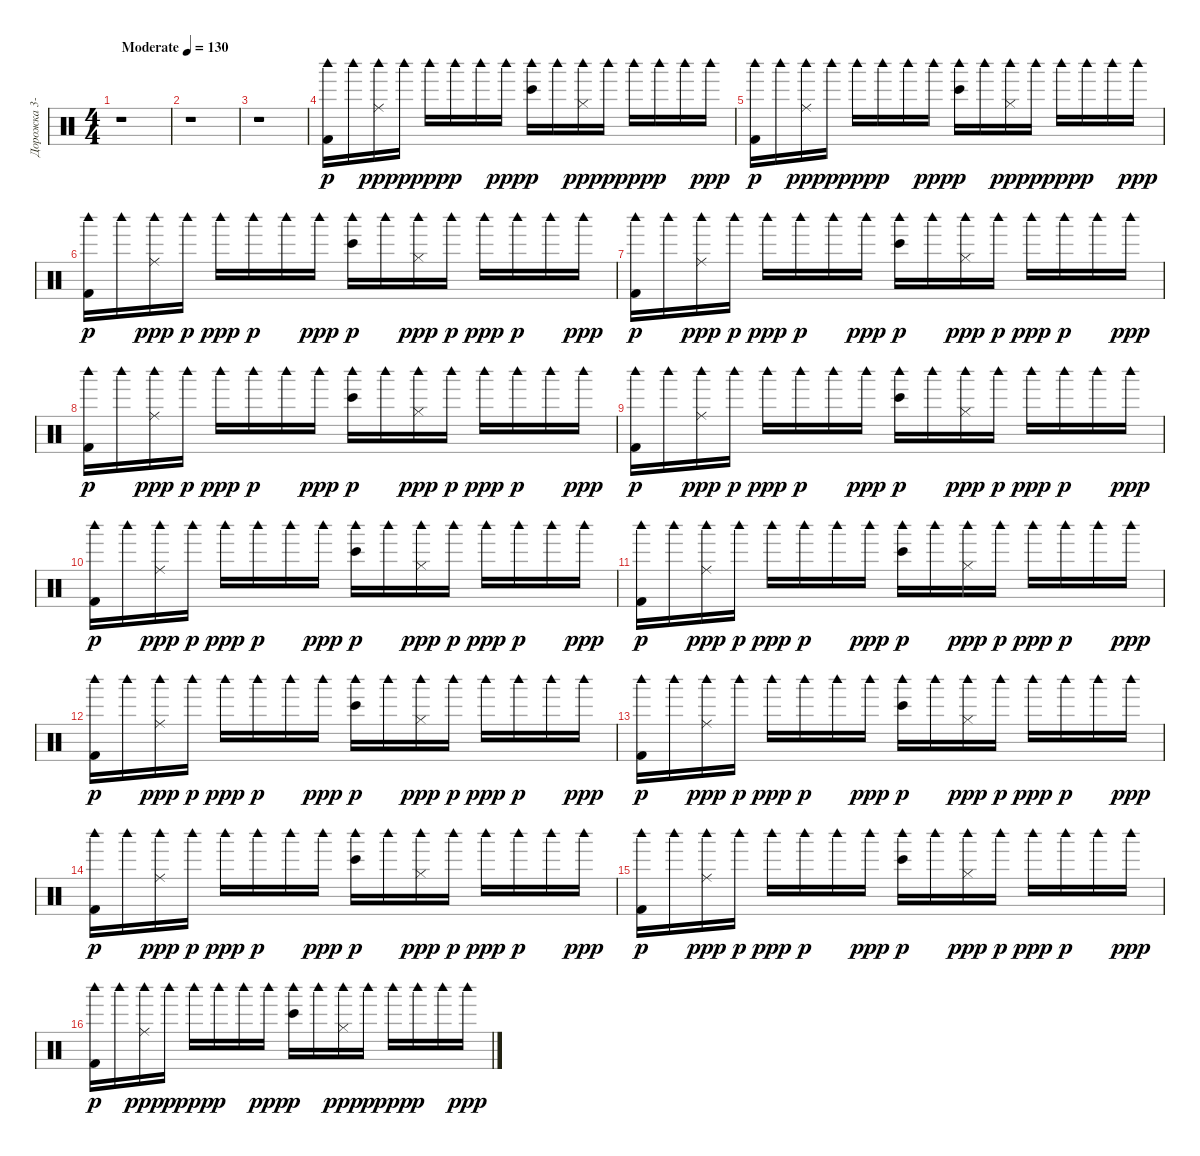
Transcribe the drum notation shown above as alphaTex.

\track ("Дорожка 3-4-5" "Дорожка 3-") {instrument percussion}
\staff {score}
\articulation defaults
\ts (4 4)
\tempo (130 "Moderate")
\clef neutral
\ks c
r.1{dy p} |
r.1 |
r.1 |
("Kick (hit) 2" "Woodblock high (hit)").16 "Woodblock high (hit)".16 ("Ride (middle)" "Woodblock high (hit)").16{dy ppp} "Woodblock high (hit)".16{dy p} "Woodblock high (hit)".16{dy ppp} "Woodblock high (hit)".16{dy p} "Woodblock high (hit)".16 "Woodblock high (hit)".16{dy ppp} ("Bongo High (hit)" "Woodblock high (hit)").16{dy p} "Woodblock high (hit)".16 ("Hi-Hat (closed)" "Woodblock high (hit)").16{dy ppp} "Woodblock high (hit)".16{dy p} "Woodblock high (hit)".16{dy ppp} "Woodblock high (hit)".16{dy p} "Woodblock high (hit)".16 "Woodblock high (hit)".16{dy ppp} |
("Kick (hit) 2" "Woodblock high (hit)").16{dy p} "Woodblock high (hit)".16 ("Ride (middle)" "Woodblock high (hit)").16{dy ppp} "Woodblock high (hit)".16{dy p} "Woodblock high (hit)".16{dy ppp} "Woodblock high (hit)".16{dy p} "Woodblock high (hit)".16 "Woodblock high (hit)".16{dy ppp} ("Bongo High (hit)" "Woodblock high (hit)").16{dy p} "Woodblock high (hit)".16 ("Hi-Hat (closed)" "Woodblock high (hit)").16{dy ppp} "Woodblock high (hit)".16{dy p} "Woodblock high (hit)".16{dy ppp} "Woodblock high (hit)".16{dy p} "Woodblock high (hit)".16 "Woodblock high (hit)".16{dy ppp} |
("Kick (hit) 2" "Woodblock high (hit)").16{dy p} "Woodblock high (hit)".16 ("Ride (middle)" "Woodblock high (hit)").16{dy ppp} "Woodblock high (hit)".16{dy p} "Woodblock high (hit)".16{dy ppp} "Woodblock high (hit)".16{dy p} "Woodblock high (hit)".16 "Woodblock high (hit)".16{dy ppp} ("Bongo High (hit)" "Woodblock high (hit)").16{dy p} "Woodblock high (hit)".16 ("Hi-Hat (closed)" "Woodblock high (hit)").16{dy ppp} "Woodblock high (hit)".16{dy p} "Woodblock high (hit)".16{dy ppp} "Woodblock high (hit)".16{dy p} "Woodblock high (hit)".16 "Woodblock high (hit)".16{dy ppp} |
("Kick (hit) 2" "Woodblock high (hit)").16{dy p} "Woodblock high (hit)".16 ("Ride (middle)" "Woodblock high (hit)").16{dy ppp} "Woodblock high (hit)".16{dy p} "Woodblock high (hit)".16{dy ppp} "Woodblock high (hit)".16{dy p} "Woodblock high (hit)".16 "Woodblock high (hit)".16{dy ppp} ("Bongo High (hit)" "Woodblock high (hit)").16{dy p} "Woodblock high (hit)".16 ("Hi-Hat (closed)" "Woodblock high (hit)").16{dy ppp} "Woodblock high (hit)".16{dy p} "Woodblock high (hit)".16{dy ppp} "Woodblock high (hit)".16{dy p} "Woodblock high (hit)".16 "Woodblock high (hit)".16{dy ppp} |
("Kick (hit) 2" "Woodblock high (hit)").16{dy p} "Woodblock high (hit)".16 ("Ride (middle)" "Woodblock high (hit)").16{dy ppp} "Woodblock high (hit)".16{dy p} "Woodblock high (hit)".16{dy ppp} "Woodblock high (hit)".16{dy p} "Woodblock high (hit)".16 "Woodblock high (hit)".16{dy ppp} ("Bongo High (hit)" "Woodblock high (hit)").16{dy p} "Woodblock high (hit)".16 ("Hi-Hat (closed)" "Woodblock high (hit)").16{dy ppp} "Woodblock high (hit)".16{dy p} "Woodblock high (hit)".16{dy ppp} "Woodblock high (hit)".16{dy p} "Woodblock high (hit)".16 "Woodblock high (hit)".16{dy ppp} |
("Kick (hit) 2" "Woodblock high (hit)").16{dy p} "Woodblock high (hit)".16 ("Ride (middle)" "Woodblock high (hit)").16{dy ppp} "Woodblock high (hit)".16{dy p} "Woodblock high (hit)".16{dy ppp} "Woodblock high (hit)".16{dy p} "Woodblock high (hit)".16 "Woodblock high (hit)".16{dy ppp} ("Bongo High (hit)" "Woodblock high (hit)").16{dy p} "Woodblock high (hit)".16 ("Hi-Hat (closed)" "Woodblock high (hit)").16{dy ppp} "Woodblock high (hit)".16{dy p} "Woodblock high (hit)".16{dy ppp} "Woodblock high (hit)".16{dy p} "Woodblock high (hit)".16 "Woodblock high (hit)".16{dy ppp} |
("Kick (hit) 2" "Woodblock high (hit)").16{dy p} "Woodblock high (hit)".16 ("Ride (middle)" "Woodblock high (hit)").16{dy ppp} "Woodblock high (hit)".16{dy p} "Woodblock high (hit)".16{dy ppp} "Woodblock high (hit)".16{dy p} "Woodblock high (hit)".16 "Woodblock high (hit)".16{dy ppp} ("Bongo High (hit)" "Woodblock high (hit)").16{dy p} "Woodblock high (hit)".16 ("Hi-Hat (closed)" "Woodblock high (hit)").16{dy ppp} "Woodblock high (hit)".16{dy p} "Woodblock high (hit)".16{dy ppp} "Woodblock high (hit)".16{dy p} "Woodblock high (hit)".16 "Woodblock high (hit)".16{dy ppp} |
("Kick (hit) 2" "Woodblock high (hit)").16{dy p} "Woodblock high (hit)".16 ("Ride (middle)" "Woodblock high (hit)").16{dy ppp} "Woodblock high (hit)".16{dy p} "Woodblock high (hit)".16{dy ppp} "Woodblock high (hit)".16{dy p} "Woodblock high (hit)".16 "Woodblock high (hit)".16{dy ppp} ("Bongo High (hit)" "Woodblock high (hit)").16{dy p} "Woodblock high (hit)".16 ("Hi-Hat (closed)" "Woodblock high (hit)").16{dy ppp} "Woodblock high (hit)".16{dy p} "Woodblock high (hit)".16{dy ppp} "Woodblock high (hit)".16{dy p} "Woodblock high (hit)".16 "Woodblock high (hit)".16{dy ppp} |
("Kick (hit) 2" "Woodblock high (hit)").16{dy p} "Woodblock high (hit)".16 ("Ride (middle)" "Woodblock high (hit)").16{dy ppp} "Woodblock high (hit)".16{dy p} "Woodblock high (hit)".16{dy ppp} "Woodblock high (hit)".16{dy p} "Woodblock high (hit)".16 "Woodblock high (hit)".16{dy ppp} ("Bongo High (hit)" "Woodblock high (hit)").16{dy p} "Woodblock high (hit)".16 ("Hi-Hat (closed)" "Woodblock high (hit)").16{dy ppp} "Woodblock high (hit)".16{dy p} "Woodblock high (hit)".16{dy ppp} "Woodblock high (hit)".16{dy p} "Woodblock high (hit)".16 "Woodblock high (hit)".16{dy ppp} |
("Kick (hit) 2" "Woodblock high (hit)").16{dy p} "Woodblock high (hit)".16 ("Ride (middle)" "Woodblock high (hit)").16{dy ppp} "Woodblock high (hit)".16{dy p} "Woodblock high (hit)".16{dy ppp} "Woodblock high (hit)".16{dy p} "Woodblock high (hit)".16 "Woodblock high (hit)".16{dy ppp} ("Bongo High (hit)" "Woodblock high (hit)").16{dy p} "Woodblock high (hit)".16 ("Hi-Hat (closed)" "Woodblock high (hit)").16{dy ppp} "Woodblock high (hit)".16{dy p} "Woodblock high (hit)".16{dy ppp} "Woodblock high (hit)".16{dy p} "Woodblock high (hit)".16 "Woodblock high (hit)".16{dy ppp} |
("Kick (hit) 2" "Woodblock high (hit)").16{dy p} "Woodblock high (hit)".16 ("Ride (middle)" "Woodblock high (hit)").16{dy ppp} "Woodblock high (hit)".16{dy p} "Woodblock high (hit)".16{dy ppp} "Woodblock high (hit)".16{dy p} "Woodblock high (hit)".16 "Woodblock high (hit)".16{dy ppp} ("Bongo High (hit)" "Woodblock high (hit)").16{dy p} "Woodblock high (hit)".16 ("Hi-Hat (closed)" "Woodblock high (hit)").16{dy ppp} "Woodblock high (hit)".16{dy p} "Woodblock high (hit)".16{dy ppp} "Woodblock high (hit)".16{dy p} "Woodblock high (hit)".16 "Woodblock high (hit)".16{dy ppp} |
("Kick (hit) 2" "Woodblock high (hit)").16{dy p} "Woodblock high (hit)".16 ("Ride (middle)" "Woodblock high (hit)").16{dy ppp} "Woodblock high (hit)".16{dy p} "Woodblock high (hit)".16{dy ppp} "Woodblock high (hit)".16{dy p} "Woodblock high (hit)".16 "Woodblock high (hit)".16{dy ppp} ("Bongo High (hit)" "Woodblock high (hit)").16{dy p} "Woodblock high (hit)".16 ("Hi-Hat (closed)" "Woodblock high (hit)").16{dy ppp} "Woodblock high (hit)".16{dy p} "Woodblock high (hit)".16{dy ppp} "Woodblock high (hit)".16{dy p} "Woodblock high (hit)".16 "Woodblock high (hit)".16{dy ppp} |
("Kick (hit) 2" "Woodblock high (hit)").16{dy p} "Woodblock high (hit)".16 ("Ride (middle)" "Woodblock high (hit)").16{dy ppp} "Woodblock high (hit)".16{dy p} "Woodblock high (hit)".16{dy ppp} "Woodblock high (hit)".16{dy p} "Woodblock high (hit)".16 "Woodblock high (hit)".16{dy ppp} ("Bongo High (hit)" "Woodblock high (hit)").16{dy p} "Woodblock high (hit)".16 ("Hi-Hat (closed)" "Woodblock high (hit)").16{dy ppp} "Woodblock high (hit)".16{dy p} "Woodblock high (hit)".16{dy ppp} "Woodblock high (hit)".16{dy p} "Woodblock high (hit)".16 "Woodblock high (hit)".16{dy ppp}
